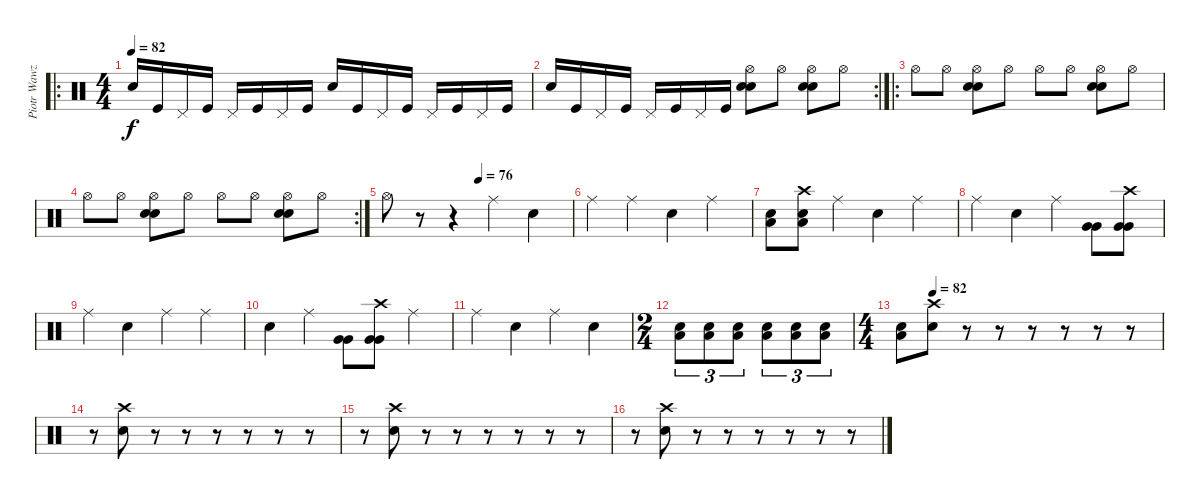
\track ("Piotr Wawzeniuk (Drums)" "Piotr Wawz") {instrument percussion}
\staff {score}
\articulation defaults
\ro
\ts (4 4)
\tempo 82
\clef neutral
\ks c "Electric Snare (hit)".16{dy f} "Kick (hit)".16 "Pedal Hi-Hat (hit)".16 "Kick (hit)".16 "Pedal Hi-Hat (hit)".16 "Kick (hit)".16 "Pedal Hi-Hat (hit)".16 "Kick (hit)".16 "Electric Snare (hit)".16 "Kick (hit)".16 "Pedal Hi-Hat (hit)".16 "Kick (hit)".16 "Pedal Hi-Hat (hit)".16 "Kick (hit)".16 "Pedal Hi-Hat (hit)".16 "Kick (hit)".16
|
\rc 2 "Electric Snare (hit)".16 "Kick (hit)".16 "Pedal Hi-Hat (hit)".16 "Kick (hit)".16 "Pedal Hi-Hat (hit)".16 "Kick (hit)".16 "Pedal Hi-Hat (hit)".16 "Kick (hit)".16
("Hi-Hat (open)" "Electric Snare (hit)" "Electric Snare (hit)").8 "Hi-Hat (open)".8 ("Hi-Hat (open)" "Electric Snare (hit)" "Electric Snare (hit)").8 "Hi-Hat (open)".8 |
\ro "Hi-Hat (open)".8 "Hi-Hat (open)".8
("Hi-Hat (open)" "Electric Snare (hit)" "Electric Snare (hit)").8 "Hi-Hat (open)".8 "Hi-Hat (open)".8 "Hi-Hat (open)".8 ("Hi-Hat (open)" "Electric Snare (hit)" "Electric Snare (hit)").8 "Hi-Hat (open)".8 |
\rc 2 "Hi-Hat (open)".8 "Hi-Hat (open)".8
("Hi-Hat (open)" "Electric Snare (hit)" "Electric Snare (hit)").8 "Hi-Hat (open)".8 "Hi-Hat (open)".8 "Hi-Hat (open)".8 ("Hi-Hat (open)" "Electric Snare (hit)" "Electric Snare (hit)").8 "Hi-Hat (open)".8 |
\tempo (76 0.5)
"Hi-Hat (open)".8 r.8 r.4 "Ride (middle)".4 "Electric Snare (hit)".4 |
"Ride (middle)".4 "Ride (middle)".4 "Electric Snare (hit)".4 "Ride (middle)".4 |
("Electric Snare (hit)" "Low Tom (hit)").8 ("Crash high (hit)" "Electric Snare (hit)" "Low Tom (hit)").8 "Ride (middle)".4 "Electric Snare (hit)".4 "Ride (middle)".4 |
"Ride (middle)".4 "Electric Snare (hit)".4 "Ride (middle)".4 ("Very Low Tom (hit)" "Very Low Tom (hit)").8 ("Crash high (hit)" "Very Low Tom (hit)" "Very Low Tom (hit)").8 |
"Ride (middle)".4 "Electric Snare (hit)".4 "Ride (middle)".4 "Ride (middle)".4 |
"Electric Snare (hit)".4 "Ride (middle)".4 ("Very Low Tom (hit)" "Very Low Tom (hit)").8 ("Crash high (hit)" "Very Low Tom (hit)" "Very Low Tom (hit)").8 "Ride (middle)".4 |
"Ride (middle)".4 "Electric Snare (hit)".4 "Ride (middle)".4 "Electric Snare (hit)".4 |
\ts (2 4)
("Electric Snare (hit)" "Low Tom (hit)").8{tu (3 2)} ("Electric Snare (hit)" "Low Tom (hit)").8{tu (3 2)} ("Electric Snare (hit)" "Low Tom (hit)").8{tu (3 2)} ("Electric Snare (hit)" "Low Tom (hit)").8{tu (3 2)} ("Electric Snare (hit)" "Low Tom (hit)").8{tu (3 2)} ("Electric Snare (hit)" "Low Tom (hit)").8{tu (3 2)} |
\ts (4 4)
\tempo (82 0.125)
("Electric Snare (hit)" "Low Tom (hit)").8 ("Crash high (hit)" "Electric Snare (hit)").8 r.8 r.8 r.8 r.8 r.8 r.8 |
r.8 ("Crash high (hit)" "Electric Snare (hit)").8 r.8 r.8 r.8 r.8 r.8 r.8 |
r.8 ("Crash high (hit)" "Electric Snare (hit)").8 r.8 r.8 r.8 r.8 r.8 r.8 |
r.8 ("Crash high (hit)" "Electric Snare (hit)").8 r.8 r.8 r.8 r.8 r.8 r.8
